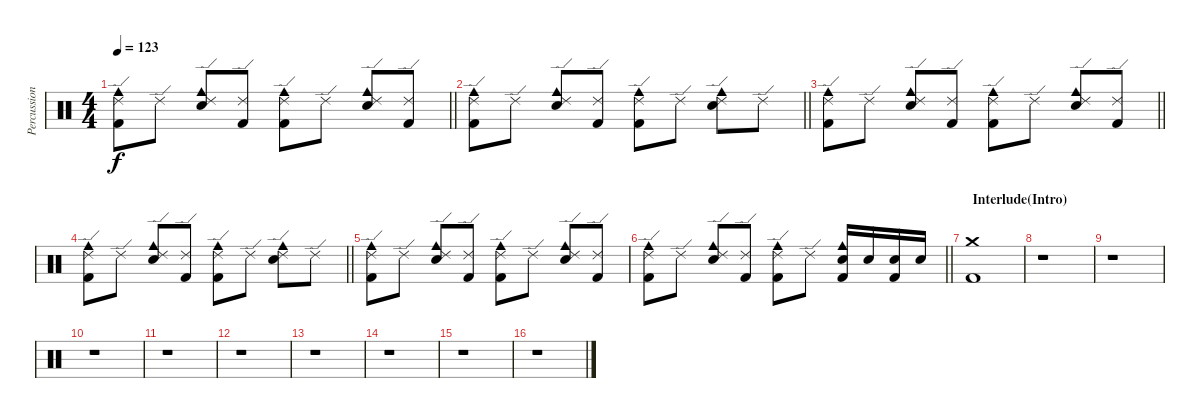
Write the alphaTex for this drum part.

\track ("Percussion" "Percussion") {instrument percussion}
\staff {score}
\articulation defaults
\ts (4 4)
\tempo 123
\clef neutral
\barLineRight lightlight
\ks c
("Ride (edge) 2" "Kick (hit) 2" "Cowbell medium (hit)").8{dy f} "Ride (edge) 2".8 ("Ride (edge) 2" "Electric Snare (hit)" "Cowbell medium (hit)").8 ("Ride (edge) 2" "Kick (hit) 2").8 ("Ride (edge) 2" "Kick (hit) 2" "Cowbell medium (hit)").8 "Ride (edge) 2".8 ("Ride (edge) 2" "Electric Snare (hit)" "Cowbell medium (hit)").8 ("Ride (edge) 2" "Kick (hit) 2").8 |
\barLineRight lightlight
("Ride (edge) 2" "Kick (hit) 2" "Cowbell medium (hit)").8 "Ride (edge) 2".8 ("Ride (edge) 2" "Electric Snare (hit)" "Cowbell medium (hit)").8 ("Ride (edge) 2" "Kick (hit) 2").8 ("Ride (edge) 2" "Kick (hit) 2" "Cowbell medium (hit)").8 "Ride (edge) 2".8 ("Ride (edge) 2" "Electric Snare (hit)" "Cowbell medium (hit)").8 "Ride (edge) 2".8 |
\barLineRight lightlight
("Ride (edge) 2" "Kick (hit) 2" "Cowbell medium (hit)").8 "Ride (edge) 2".8 ("Ride (edge) 2" "Electric Snare (hit)" "Cowbell medium (hit)").8 ("Ride (edge) 2" "Kick (hit) 2").8 ("Ride (edge) 2" "Kick (hit) 2" "Cowbell medium (hit)").8 "Ride (edge) 2".8 ("Ride (edge) 2" "Electric Snare (hit)" "Cowbell medium (hit)").8 ("Ride (edge) 2" "Kick (hit) 2").8 |
\barLineRight lightlight
("Ride (edge) 2" "Kick (hit) 2" "Cowbell medium (hit)").8 "Ride (edge) 2".8 ("Ride (edge) 2" "Electric Snare (hit)" "Cowbell medium (hit)").8 ("Ride (edge) 2" "Kick (hit) 2").8 ("Ride (edge) 2" "Kick (hit) 2" "Cowbell medium (hit)").8 "Ride (edge) 2".8 ("Ride (edge) 2" "Electric Snare (hit)" "Cowbell medium (hit)").8 "Ride (edge) 2".8 |
("Ride (edge) 2" "Kick (hit) 2" "Cowbell medium (hit)").8 "Ride (edge) 2".8 ("Ride (edge) 2" "Electric Snare (hit)" "Cowbell medium (hit)").8 ("Ride (edge) 2" "Kick (hit) 2").8 ("Ride (edge) 2" "Kick (hit) 2" "Cowbell medium (hit)").8 "Ride (edge) 2".8 ("Ride (edge) 2" "Electric Snare (hit)" "Cowbell medium (hit)").8 ("Ride (edge) 2" "Kick (hit) 2").8 |
\barLineRight lightlight
("Ride (edge) 2" "Kick (hit) 2" "Cowbell medium (hit)").8 "Ride (edge) 2".8 ("Ride (edge) 2" "Electric Snare (hit)" "Cowbell medium (hit)").8 ("Ride (edge) 2" "Kick (hit) 2").8 ("Ride (edge) 2" "Kick (hit) 2" "Cowbell medium (hit)").8 "Ride (edge) 2".8 ("Kick (hit) 2" "Electric Snare (hit)" "Cowbell medium (hit)").16 "Electric Snare (hit)".16 ("Kick (hit) 2" "Electric Snare (hit)").16 "Electric Snare (hit)".16 |
\section ("" "  Interlude(Intro)")
("Kick (hit) 2" "Crash medium (hit)").1 |
r.1 |
r.1 |
r.1 |
r.1 |
r.1 |
r.1 |
r.1 |
r.1 |
r.1
